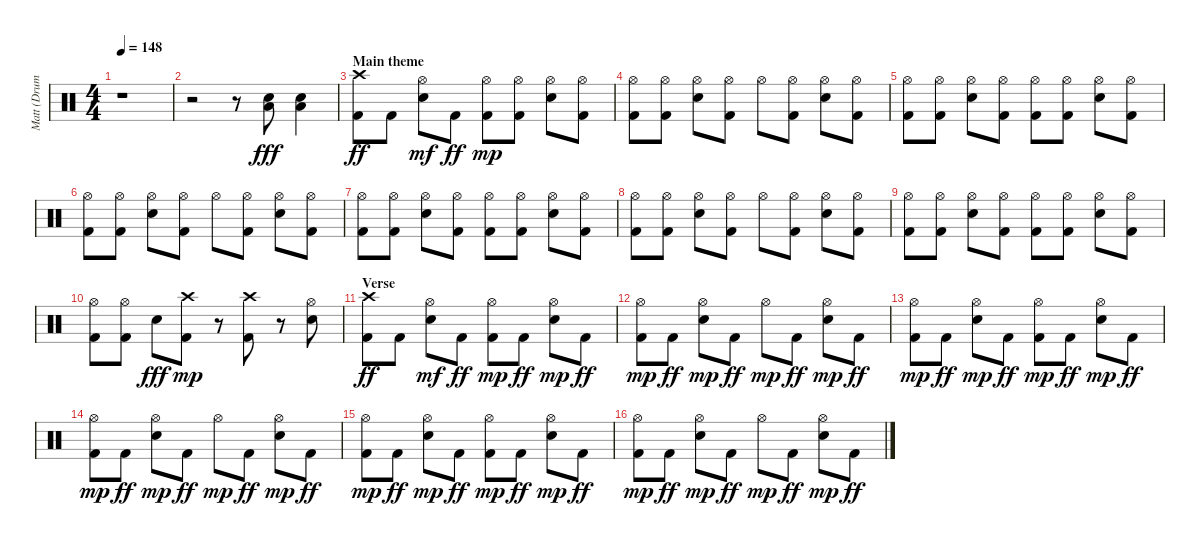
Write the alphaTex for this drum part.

\track ("Matt (Drums)" "Matt (Drum") {instrument percussion}
\staff {score}
\articulation defaults
\ts (4 4)
\tempo 148
\clef neutral
\ks c
r.1{dy fff} |
r.2 r.8 ("Snare (hit) 2" "Low Tom (hit)").8 ("Snare (hit) 2" "Low Tom (hit)").4 |
\section ("" "Main theme")
("Kick (hit) 2" "Crash high (hit)").8{dy ff} "Kick (hit) 2".8 ("Electric Snare (hit)" "Hi-Hat (open)").8{dy mf} "Kick (hit) 2".8{dy ff} ("Kick (hit) 2" "Hi-Hat (open)").8{dy mp} ("Kick (hit) 2" "Hi-Hat (open)").8 ("Electric Snare (hit)" "Hi-Hat (open)").8 ("Kick (hit) 2" "Hi-Hat (open)").8 |
("Kick (hit) 2" "Hi-Hat (open)").8 ("Kick (hit) 2" "Hi-Hat (open)").8 ("Electric Snare (hit)" "Hi-Hat (open)").8 ("Kick (hit) 2" "Hi-Hat (open)").8 "Hi-Hat (open)".8 ("Kick (hit) 2" "Hi-Hat (open)").8 ("Electric Snare (hit)" "Hi-Hat (open)").8 ("Kick (hit) 2" "Hi-Hat (open)").8 |
("Kick (hit) 2" "Hi-Hat (open)").8 ("Kick (hit) 2" "Hi-Hat (open)").8 ("Electric Snare (hit)" "Hi-Hat (open)").8 ("Kick (hit) 2" "Hi-Hat (open)").8 ("Kick (hit) 2" "Hi-Hat (open)").8 ("Kick (hit) 2" "Hi-Hat (open)").8 ("Electric Snare (hit)" "Hi-Hat (open)").8 ("Kick (hit) 2" "Hi-Hat (open)").8 |
("Kick (hit) 2" "Hi-Hat (open)").8 ("Kick (hit) 2" "Hi-Hat (open)").8 ("Electric Snare (hit)" "Hi-Hat (open)").8 ("Kick (hit) 2" "Hi-Hat (open)").8 "Hi-Hat (open)".8 ("Kick (hit) 2" "Hi-Hat (open)").8 ("Electric Snare (hit)" "Hi-Hat (open)").8 ("Kick (hit) 2" "Hi-Hat (open)").8 |
("Kick (hit) 2" "Hi-Hat (open)").8 ("Kick (hit) 2" "Hi-Hat (open)").8 ("Electric Snare (hit)" "Hi-Hat (open)").8 ("Kick (hit) 2" "Hi-Hat (open)").8 ("Kick (hit) 2" "Hi-Hat (open)").8 ("Kick (hit) 2" "Hi-Hat (open)").8 ("Electric Snare (hit)" "Hi-Hat (open)").8 ("Kick (hit) 2" "Hi-Hat (open)").8 |
("Kick (hit) 2" "Hi-Hat (open)").8 ("Kick (hit) 2" "Hi-Hat (open)").8 ("Electric Snare (hit)" "Hi-Hat (open)").8 ("Kick (hit) 2" "Hi-Hat (open)").8 "Hi-Hat (open)".8 ("Kick (hit) 2" "Hi-Hat (open)").8 ("Electric Snare (hit)" "Hi-Hat (open)").8 ("Kick (hit) 2" "Hi-Hat (open)").8 |
("Kick (hit) 2" "Hi-Hat (open)").8 ("Kick (hit) 2" "Hi-Hat (open)").8 ("Electric Snare (hit)" "Hi-Hat (open)").8 ("Kick (hit) 2" "Hi-Hat (open)").8 ("Kick (hit) 2" "Hi-Hat (open)").8 ("Kick (hit) 2" "Hi-Hat (open)").8 ("Electric Snare (hit)" "Hi-Hat (open)").8 ("Kick (hit) 2" "Hi-Hat (open)").8 |
("Kick (hit) 2" "Hi-Hat (open)").8 ("Kick (hit) 2" "Hi-Hat (open)").8 "Electric Snare (hit)".8{dy fff} ("Kick (hit) 2" "Crash high (hit)").8{dy mp} r.8 ("Kick (hit) 2" "Crash high (hit)").8 r.8 ("Electric Snare (hit)" "Hi-Hat (open)").8 |
\section ("" "Verse")
("Kick (hit) 2" "Crash high (hit)").8{dy ff} "Kick (hit) 2".8 ("Electric Snare (hit)" "Hi-Hat (open)").8{dy mf} "Kick (hit) 2".8{dy ff} ("Kick (hit) 2" "Hi-Hat (open)").8{dy mp} "Kick (hit) 2".8{dy ff} ("Electric Snare (hit)" "Hi-Hat (open)").8{dy mp} "Kick (hit) 2".8{dy ff} |
("Kick (hit) 2" "Hi-Hat (open)").8{dy mp} "Kick (hit) 2".8{dy ff} ("Electric Snare (hit)" "Hi-Hat (open)").8{dy mp} "Kick (hit) 2".8{dy ff} "Hi-Hat (open)".8{dy mp} "Kick (hit) 2".8{dy ff} ("Electric Snare (hit)" "Hi-Hat (open)").8{dy mp} "Kick (hit) 2".8{dy ff} |
("Kick (hit) 2" "Hi-Hat (open)").8{dy mp} "Kick (hit) 2".8{dy ff} ("Electric Snare (hit)" "Hi-Hat (open)").8{dy mp} "Kick (hit) 2".8{dy ff} ("Kick (hit) 2" "Hi-Hat (open)").8{dy mp} "Kick (hit) 2".8{dy ff} ("Electric Snare (hit)" "Hi-Hat (open)").8{dy mp} "Kick (hit) 2".8{dy ff} |
("Kick (hit) 2" "Hi-Hat (open)").8{dy mp} "Kick (hit) 2".8{dy ff} ("Electric Snare (hit)" "Hi-Hat (open)").8{dy mp} "Kick (hit) 2".8{dy ff} "Hi-Hat (open)".8{dy mp} "Kick (hit) 2".8{dy ff} ("Electric Snare (hit)" "Hi-Hat (open)").8{dy mp} "Kick (hit) 2".8{dy ff} |
("Kick (hit) 2" "Hi-Hat (open)").8{dy mp} "Kick (hit) 2".8{dy ff} ("Electric Snare (hit)" "Hi-Hat (open)").8{dy mp} "Kick (hit) 2".8{dy ff} ("Kick (hit) 2" "Hi-Hat (open)").8{dy mp} "Kick (hit) 2".8{dy ff} ("Electric Snare (hit)" "Hi-Hat (open)").8{dy mp} "Kick (hit) 2".8{dy ff} |
("Kick (hit) 2" "Hi-Hat (open)").8{dy mp} "Kick (hit) 2".8{dy ff} ("Electric Snare (hit)" "Hi-Hat (open)").8{dy mp} "Kick (hit) 2".8{dy ff} "Hi-Hat (open)".8{dy mp} "Kick (hit) 2".8{dy ff} ("Electric Snare (hit)" "Hi-Hat (open)").8{dy mp} "Kick (hit) 2".8{dy ff}
